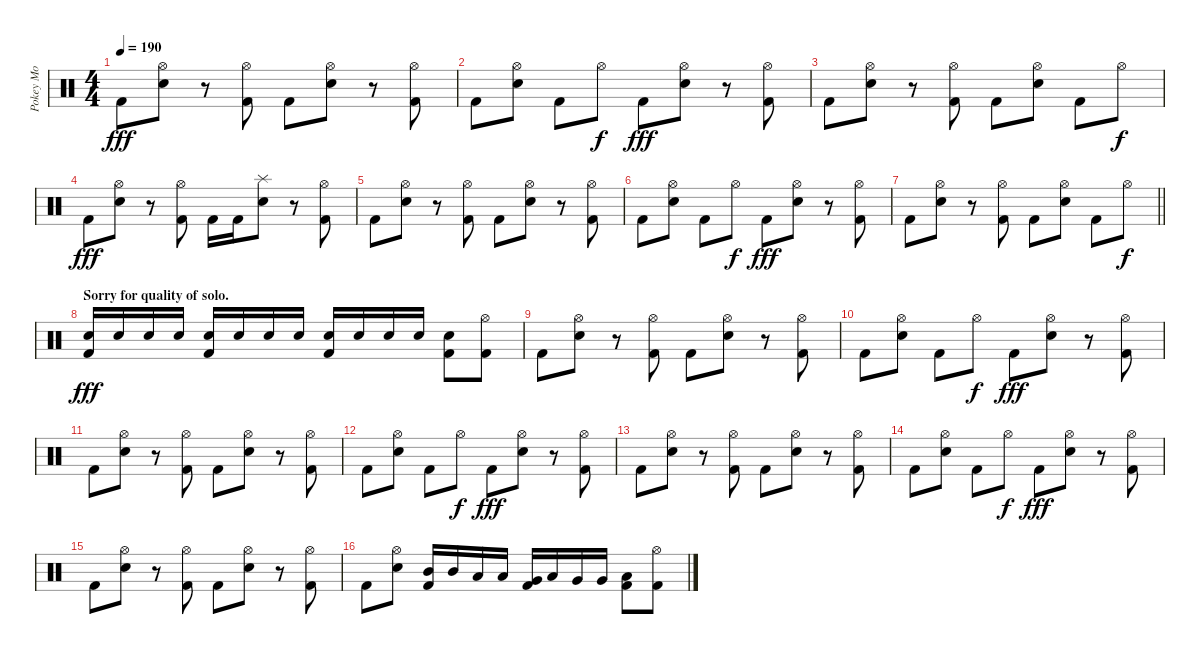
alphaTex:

\track ("Pokey Mo" "Pokey Mo") {instrument percussion}
\staff {score}
\articulation defaults
\ts (4 4)
\tempo 190
\clef neutral
\ks c "Kick (hit) 2".8{dy fff}
("Hi-Hat (open)" "Electric Snare (hit)").8 r.8 ("Hi-Hat (open)" "Kick (hit) 2").8 "Kick (hit) 2".8 ("Hi-Hat (open)" "Electric Snare (hit)").8 r.8 ("Hi-Hat (open)" "Kick (hit) 2").8 |
"Kick (hit) 2".8 ("Hi-Hat (open)" "Electric Snare (hit)").8 "Kick (hit) 2".8 "Hi-Hat (open)".8{dy f} "Kick (hit) 2".8{dy fff} ("Hi-Hat (open)" "Electric Snare (hit)").8 r.8 ("Hi-Hat (open)" "Kick (hit) 2").8 |
"Kick (hit) 2".8 ("Hi-Hat (open)" "Electric Snare (hit)").8 r.8 ("Hi-Hat (open)" "Kick (hit) 2").8 "Kick (hit) 2".8 ("Hi-Hat (open)" "Electric Snare (hit)").8 "Kick (hit) 2".8 "Hi-Hat (open)".8{dy f} |
"Kick (hit) 2".8{dy fff} ("Hi-Hat (open)" "Electric Snare (hit)").8 r.8 ("Hi-Hat (open)" "Kick (hit) 2").8 "Kick (hit) 2".16 "Kick (hit) 2".16 ("Splash (hit)" "Electric Snare (hit)").8 r.8 ("Hi-Hat (open)" "Kick (hit) 2").8 |
"Kick (hit) 2".8 ("Hi-Hat (open)" "Electric Snare (hit)").8 r.8 ("Hi-Hat (open)" "Kick (hit) 2").8 "Kick (hit) 2".8 ("Hi-Hat (open)" "Electric Snare (hit)").8 r.8 ("Hi-Hat (open)" "Kick (hit) 2").8 |
"Kick (hit) 2".8 ("Hi-Hat (open)" "Electric Snare (hit)").8 "Kick (hit) 2".8 "Hi-Hat (open)".8{dy f} "Kick (hit) 2".8{dy fff} ("Hi-Hat (open)" "Electric Snare (hit)").8 r.8 ("Hi-Hat (open)" "Kick (hit) 2").8 |
\barLineRight lightlight "Kick (hit) 2".8
("Hi-Hat (open)" "Electric Snare (hit)").8 r.8 ("Hi-Hat (open)" "Kick (hit) 2").8 "Kick (hit) 2".8 ("Hi-Hat (open)" "Electric Snare (hit)").8 "Kick (hit) 2".8 "Hi-Hat (open)".8{dy f} |
\section ("" "Sorry for quality of solo.")
("Electric Snare (hit)" "Kick (hit) 2").16{dy fff} "Electric Snare (hit)".16 "Electric Snare (hit)".16 "Electric Snare (hit)".16 ("Electric Snare (hit)" "Kick (hit) 2").16 "Electric Snare (hit)".16 "Electric Snare (hit)".16 "Electric Snare (hit)".16 ("Electric Snare (hit)" "Kick (hit) 2").16 "Electric Snare (hit)".16 "Electric Snare (hit)".16 "Electric Snare (hit)".16 ("Electric Snare (hit)" "Kick (hit) 2").8 ("Hi-Hat (open)" "Kick (hit) 2").8 |
"Kick (hit) 2".8 ("Hi-Hat (open)" "Electric Snare (hit)").8 r.8 ("Hi-Hat (open)" "Kick (hit) 2").8 "Kick (hit) 2".8 ("Hi-Hat (open)" "Electric Snare (hit)").8 r.8 ("Hi-Hat (open)" "Kick (hit) 2").8 |
"Kick (hit) 2".8 ("Hi-Hat (open)" "Electric Snare (hit)").8 "Kick (hit) 2".8 "Hi-Hat (open)".8{dy f} "Kick (hit) 2".8{dy fff} ("Hi-Hat (open)" "Electric Snare (hit)").8 r.8 ("Hi-Hat (open)" "Kick (hit) 2").8 |
"Kick (hit) 2".8 ("Hi-Hat (open)" "Electric Snare (hit)").8 r.8 ("Hi-Hat (open)" "Kick (hit) 2").8 "Kick (hit) 2".8 ("Hi-Hat (open)" "Electric Snare (hit)").8 r.8 ("Hi-Hat (open)" "Kick (hit) 2").8 |
"Kick (hit) 2".8 ("Hi-Hat (open)" "Electric Snare (hit)").8 "Kick (hit) 2".8 "Hi-Hat (open)".8{dy f} "Kick (hit) 2".8{dy fff} ("Hi-Hat (open)" "Electric Snare (hit)").8 r.8 ("Hi-Hat (open)" "Kick (hit) 2").8 |
"Kick (hit) 2".8 ("Hi-Hat (open)" "Electric Snare (hit)").8 r.8 ("Hi-Hat (open)" "Kick (hit) 2").8 "Kick (hit) 2".8 ("Hi-Hat (open)" "Electric Snare (hit)").8 r.8 ("Hi-Hat (open)" "Kick (hit) 2").8 |
"Kick (hit) 2".8 ("Hi-Hat (open)" "Electric Snare (hit)").8 "Kick (hit) 2".8 "Hi-Hat (open)".8{dy f} "Kick (hit) 2".8{dy fff} ("Hi-Hat (open)" "Electric Snare (hit)").8 r.8 ("Hi-Hat (open)" "Kick (hit) 2").8 |
"Kick (hit) 2".8 ("Hi-Hat (open)" "Electric Snare (hit)").8 r.8 ("Hi-Hat (open)" "Kick (hit) 2").8 "Kick (hit) 2".8 ("Hi-Hat (open)" "Electric Snare (hit)").8 r.8 ("Hi-Hat (open)" "Kick (hit) 2").8 |
"Kick (hit) 2".8 ("Hi-Hat (open)" "Electric Snare (hit)").8 ("Mid Tom (hit)" "Kick (hit) 2").16 "Mid Tom (hit)".16 "Low Tom (hit)".16 "Low Tom (hit)".16 ("Very Low Tom (hit)" "Kick (hit) 2").16 "Low Tom (hit)".16 "Very Low Tom (hit)".16 "Very Low Tom (hit)".16 ("Low Floor Tom (hit)" "Kick (hit) 2").8 ("Hi-Hat (open)" "Kick (hit) 2").8
